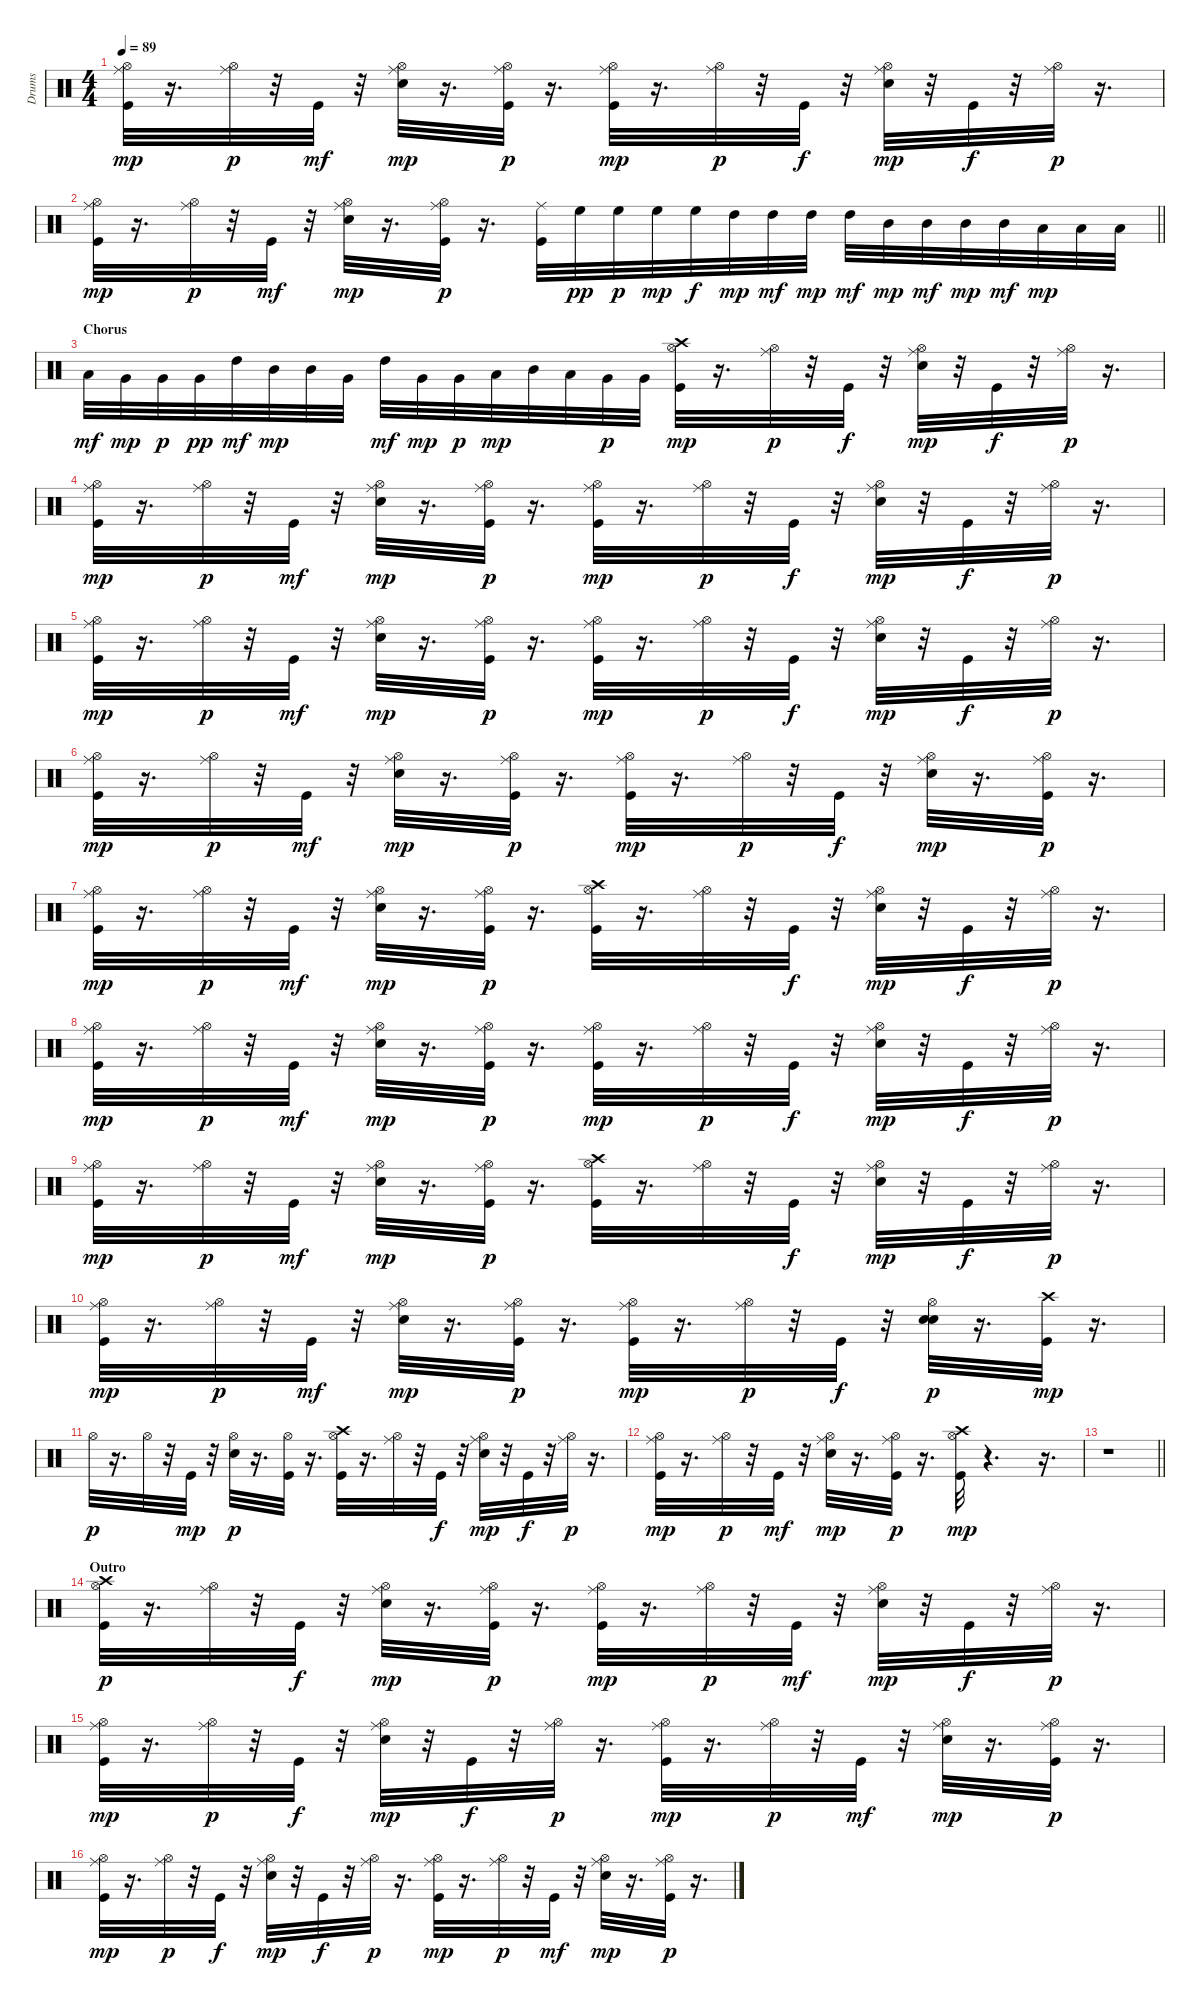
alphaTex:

\track ("Drums   " "Drums   ") {instrument percussion}
\staff {score}
\articulation defaults
\ts (4 4)
\tempo 89
\clef neutral
\ks c
("Kick (hit)" "Hi-Hat (open)" "Ride (middle)").32{dy mp} r.16{d} ("Hi-Hat (open)" "Ride (middle)").32{dy p} r.32 "Kick (hit)".32{dy mf} r.32 ("Electric Snare (hit)" "Hi-Hat (open)" "Ride (middle)").32{dy mp} r.16{d} ("Kick (hit)" "Hi-Hat (open)" "Ride (middle)").32{dy p} r.16{d} ("Kick (hit)" "Hi-Hat (open)" "Ride (middle)").32{dy mp} r.16{d} ("Hi-Hat (open)" "Ride (middle)").32{dy p} r.32 "Kick (hit)".32{dy f} r.32 ("Electric Snare (hit)" "Hi-Hat (open)" "Ride (middle)").32{dy mp} r.32 "Kick (hit)".32{dy f} r.32 ("Hi-Hat (open)" "Ride (middle)").32{dy p} r.16{d} |
\barLineRight lightlight
("Kick (hit)" "Hi-Hat (open)" "Ride (middle)").32{dy mp} r.16{d} ("Hi-Hat (open)" "Ride (middle)").32{dy p} r.32 "Kick (hit)".32{dy mf} r.32 ("Electric Snare (hit)" "Hi-Hat (open)" "Ride (middle)").32{dy mp} r.16{d} ("Kick (hit)" "Hi-Hat (open)" "Ride (middle)").32{dy p} r.16{d} ("Kick (hit)" "Ride (middle)").32 "High Floor Tom (hit)".32{dy pp} "High Floor Tom (hit)".32{dy p} "High Floor Tom (hit)".32{dy mp} "High Floor Tom (hit)".32{dy f} "High Tom (hit)".32{dy mp} "High Tom (hit)".32{dy mf} "High Tom (hit)".32{dy mp} "High Tom (hit)".32{dy mf} "Mid Tom (hit)".32{dy mp} "Mid Tom (hit)".32{dy mf} "Mid Tom (hit)".32{dy mp} "Mid Tom (hit)".32{dy mf} "Low Tom (hit)".32{dy mp} "Low Tom (hit)".32 "Low Tom (hit)".32 |
\section ("" "Chorus")
"Low Tom (hit)".32{dy mf} "Very Low Tom (hit)".32{dy mp} "Very Low Tom (hit)".32{dy p} "Very Low Tom (hit)".32{dy pp} "High Tom (hit)".32{dy mf} "Mid Tom (hit)".32{dy mp} "Mid Tom (hit)".32 "Very Low Tom (hit)".32 "High Tom (hit)".32{dy mf} "Very Low Tom (hit)".32{dy mp} "Very Low Tom (hit)".32{dy p} "Low Floor Tom (hit)".32{dy mp} "Mid Tom (hit)".32 "Low Tom (hit)".32 "Very Low Tom (hit)".32{dy p} "Very Low Tom (hit)".32 ("Kick (hit)" "Hi-Hat (open)" "Crash high (hit)").32{dy mp} r.16{d} ("Hi-Hat (open)" "Ride (middle)").32{dy p} r.32 "Kick (hit)".32{dy f} r.32 ("Electric Snare (hit)" "Hi-Hat (open)" "Ride (middle)").32{dy mp} r.32 "Kick (hit)".32{dy f} r.32 ("Hi-Hat (open)" "Ride (middle)").32{dy p} r.16{d} |
("Kick (hit)" "Hi-Hat (open)" "Ride (middle)").32{dy mp} r.16{d} ("Hi-Hat (open)" "Ride (middle)").32{dy p} r.32 "Kick (hit)".32{dy mf} r.32 ("Electric Snare (hit)" "Hi-Hat (open)" "Ride (middle)").32{dy mp} r.16{d} ("Kick (hit)" "Hi-Hat (open)" "Ride (middle)").32{dy p} r.16{d} ("Kick (hit)" "Hi-Hat (open)" "Ride (middle)").32{dy mp} r.16{d} ("Hi-Hat (open)" "Ride (middle)").32{dy p} r.32 "Kick (hit)".32{dy f} r.32 ("Electric Snare (hit)" "Hi-Hat (open)" "Ride (middle)").32{dy mp} r.32 "Kick (hit)".32{dy f} r.32 ("Hi-Hat (open)" "Ride (middle)").32{dy p} r.16{d} |
("Kick (hit)" "Hi-Hat (open)" "Ride (middle)").32{dy mp} r.16{d} ("Hi-Hat (open)" "Ride (middle)").32{dy p} r.32 "Kick (hit)".32{dy mf} r.32 ("Electric Snare (hit)" "Hi-Hat (open)" "Ride (middle)").32{dy mp} r.16{d} ("Kick (hit)" "Hi-Hat (open)" "Ride (middle)").32{dy p} r.16{d} ("Kick (hit)" "Hi-Hat (open)" "Ride (middle)").32{dy mp} r.16{d} ("Hi-Hat (open)" "Ride (middle)").32{dy p} r.32 "Kick (hit)".32{dy f} r.32 ("Electric Snare (hit)" "Hi-Hat (open)" "Ride (middle)").32{dy mp} r.32 "Kick (hit)".32{dy f} r.32 ("Hi-Hat (open)" "Ride (middle)").32{dy p} r.16{d} |
("Kick (hit)" "Hi-Hat (open)" "Ride (middle)").32{dy mp} r.16{d} ("Hi-Hat (open)" "Ride (middle)").32{dy p} r.32 "Kick (hit)".32{dy mf} r.32 ("Electric Snare (hit)" "Hi-Hat (open)" "Ride (middle)").32{dy mp} r.16{d} ("Kick (hit)" "Hi-Hat (open)" "Ride (middle)").32{dy p} r.16{d} ("Kick (hit)" "Hi-Hat (open)" "Ride (middle)").32{dy mp} r.16{d} ("Hi-Hat (open)" "Ride (middle)").32{dy p} r.32 "Kick (hit)".32{dy f} r.32 ("Electric Snare (hit)" "Hi-Hat (open)" "Ride (middle)").32{dy mp} r.16{d} ("Kick (hit)" "Hi-Hat (open)" "Ride (middle)").32{dy p} r.16{d} |
("Kick (hit)" "Hi-Hat (open)" "Ride (middle)").32{dy mp} r.16{d} ("Hi-Hat (open)" "Ride (middle)").32{dy p} r.32 "Kick (hit)".32{dy mf} r.32 ("Electric Snare (hit)" "Hi-Hat (open)" "Ride (middle)").32{dy mp} r.16{d} ("Kick (hit)" "Hi-Hat (open)" "Ride (middle)").32{dy p} r.16{d} ("Kick (hit)" "Hi-Hat (open)" "Crash high (hit)").32 r.16{d} ("Hi-Hat (open)" "Ride (middle)").32 r.32 "Kick (hit)".32{dy f} r.32 ("Electric Snare (hit)" "Hi-Hat (open)" "Ride (middle)").32{dy mp} r.32 "Kick (hit)".32{dy f} r.32 ("Hi-Hat (open)" "Ride (middle)").32{dy p} r.16{d} |
("Kick (hit)" "Hi-Hat (open)" "Ride (middle)").32{dy mp} r.16{d} ("Hi-Hat (open)" "Ride (middle)").32{dy p} r.32 "Kick (hit)".32{dy mf} r.32 ("Electric Snare (hit)" "Hi-Hat (open)" "Ride (middle)").32{dy mp} r.16{d} ("Kick (hit)" "Hi-Hat (open)" "Ride (middle)").32{dy p} r.16{d} ("Kick (hit)" "Hi-Hat (open)" "Ride (middle)").32{dy mp} r.16{d} ("Hi-Hat (open)" "Ride (middle)").32{dy p} r.32 "Kick (hit)".32{dy f} r.32 ("Electric Snare (hit)" "Hi-Hat (open)" "Ride (middle)").32{dy mp} r.32 "Kick (hit)".32{dy f} r.32 ("Hi-Hat (open)" "Ride (middle)").32{dy p} r.16{d} |
("Kick (hit)" "Hi-Hat (open)" "Ride (middle)").32{dy mp} r.16{d} ("Hi-Hat (open)" "Ride (middle)").32{dy p} r.32 "Kick (hit)".32{dy mf} r.32 ("Electric Snare (hit)" "Hi-Hat (open)" "Ride (middle)").32{dy mp} r.16{d} ("Kick (hit)" "Hi-Hat (open)" "Ride (middle)").32{dy p} r.16{d} ("Kick (hit)" "Hi-Hat (open)" "Crash high (hit)").32 r.16{d} ("Hi-Hat (open)" "Ride (middle)").32 r.32 "Kick (hit)".32{dy f} r.32 ("Electric Snare (hit)" "Hi-Hat (open)" "Ride (middle)").32{dy mp} r.32 "Kick (hit)".32{dy f} r.32 ("Hi-Hat (open)" "Ride (middle)").32{dy p} r.16{d} |
("Kick (hit)" "Hi-Hat (open)" "Ride (middle)").32{dy mp} r.16{d} ("Hi-Hat (open)" "Ride (middle)").32{dy p} r.32 "Kick (hit)".32{dy mf} r.32 ("Electric Snare (hit)" "Hi-Hat (open)" "Ride (middle)").32{dy mp} r.16{d} ("Kick (hit)" "Hi-Hat (open)" "Ride (middle)").32{dy p} r.16{d} ("Kick (hit)" "Hi-Hat (open)" "Ride (middle)").32{dy mp} r.16{d} ("Hi-Hat (open)" "Ride (middle)").32{dy p} r.32 "Kick (hit)".32{dy f} r.32 ("Electric Snare (hit)" "Electric Snare (hit)" "Hi-Hat (open)").32{dy p} r.16{d} ("Kick (hit)" "Crash high (hit)").32{dy mp} r.16{d} |
"Hi-Hat (open)".32{dy p} r.16{d} "Hi-Hat (open)".32 r.32 "Kick (hit)".32{dy mp} r.32 ("Electric Snare (hit)" "Hi-Hat (open)").32{dy p} r.16{d} ("Kick (hit)" "Hi-Hat (open)").32 r.16{d} ("Kick (hit)" "Hi-Hat (open)" "Crash high (hit)").32 r.16{d} ("Hi-Hat (open)" "Ride (middle)").32 r.32 "Kick (hit)".32{dy f} r.32 ("Electric Snare (hit)" "Hi-Hat (open)" "Ride (middle)").32{dy mp} r.32 "Kick (hit)".32{dy f} r.32 ("Hi-Hat (open)" "Ride (middle)").32{dy p} r.16{d} |
("Kick (hit)" "Hi-Hat (open)" "Ride (middle)").32{dy mp} r.16{d} ("Hi-Hat (open)" "Ride (middle)").32{dy p} r.32 "Kick (hit)".32{dy mf} r.32 ("Electric Snare (hit)" "Hi-Hat (open)" "Ride (middle)").32{dy mp} r.16{d} ("Kick (hit)" "Hi-Hat (open)" "Ride (middle)").32{dy p} r.16{d} ("Kick (hit)" "Hi-Hat (open)" "Crash high (hit)").32{dy mp} r.4{d} r.16{d} |
\barLineRight lightlight
r.1 |
\section ("" "Outro")
("Kick (hit)" "Hi-Hat (open)" "Crash high (hit)").32{dy p} r.16{d} ("Hi-Hat (open)" "Ride (middle)").32 r.32 "Kick (hit)".32{dy f} r.32 ("Electric Snare (hit)" "Hi-Hat (open)" "Ride (middle)").32{dy mp} r.16{d} ("Kick (hit)" "Hi-Hat (open)" "Ride (middle)").32{dy p} r.16{d} ("Kick (hit)" "Hi-Hat (open)" "Ride (middle)").32{dy mp} r.16{d} ("Hi-Hat (open)" "Ride (middle)").32{dy p} r.32 "Kick (hit)".32{dy mf} r.32 ("Electric Snare (hit)" "Hi-Hat (open)" "Ride (middle)").32{dy mp} r.32 "Kick (hit)".32{dy f} r.32 ("Hi-Hat (open)" "Ride (middle)").32{dy p} r.16{d} |
("Kick (hit)" "Hi-Hat (open)" "Ride (middle)").32{dy mp} r.16{d} ("Hi-Hat (open)" "Ride (middle)").32{dy p} r.32 "Kick (hit)".32{dy f} r.32 ("Electric Snare (hit)" "Hi-Hat (open)" "Ride (middle)").32{dy mp} r.32 "Kick (hit)".32{dy f} r.32 ("Hi-Hat (open)" "Ride (middle)").32{dy p} r.16{d} ("Kick (hit)" "Hi-Hat (open)" "Ride (middle)").32{dy mp} r.16{d} ("Hi-Hat (open)" "Ride (middle)").32{dy p} r.32 "Kick (hit)".32{dy mf} r.32 ("Electric Snare (hit)" "Hi-Hat (open)" "Ride (middle)").32{dy mp} r.16{d} ("Kick (hit)" "Hi-Hat (open)" "Ride (middle)").32{dy p} r.16{d} |
("Kick (hit)" "Hi-Hat (open)" "Ride (middle)").32{dy mp} r.16{d} ("Hi-Hat (open)" "Ride (middle)").32{dy p} r.32 "Kick (hit)".32{dy f} r.32 ("Electric Snare (hit)" "Hi-Hat (open)" "Ride (middle)").32{dy mp} r.32 "Kick (hit)".32{dy f} r.32 ("Hi-Hat (open)" "Ride (middle)").32{dy p} r.16{d} ("Kick (hit)" "Hi-Hat (open)" "Ride (middle)").32{dy mp} r.16{d} ("Hi-Hat (open)" "Ride (middle)").32{dy p} r.32 "Kick (hit)".32{dy mf} r.32 ("Electric Snare (hit)" "Hi-Hat (open)" "Ride (middle)").32{dy mp} r.16{d} ("Kick (hit)" "Hi-Hat (open)" "Ride (middle)").32{dy p} r.16{d}
